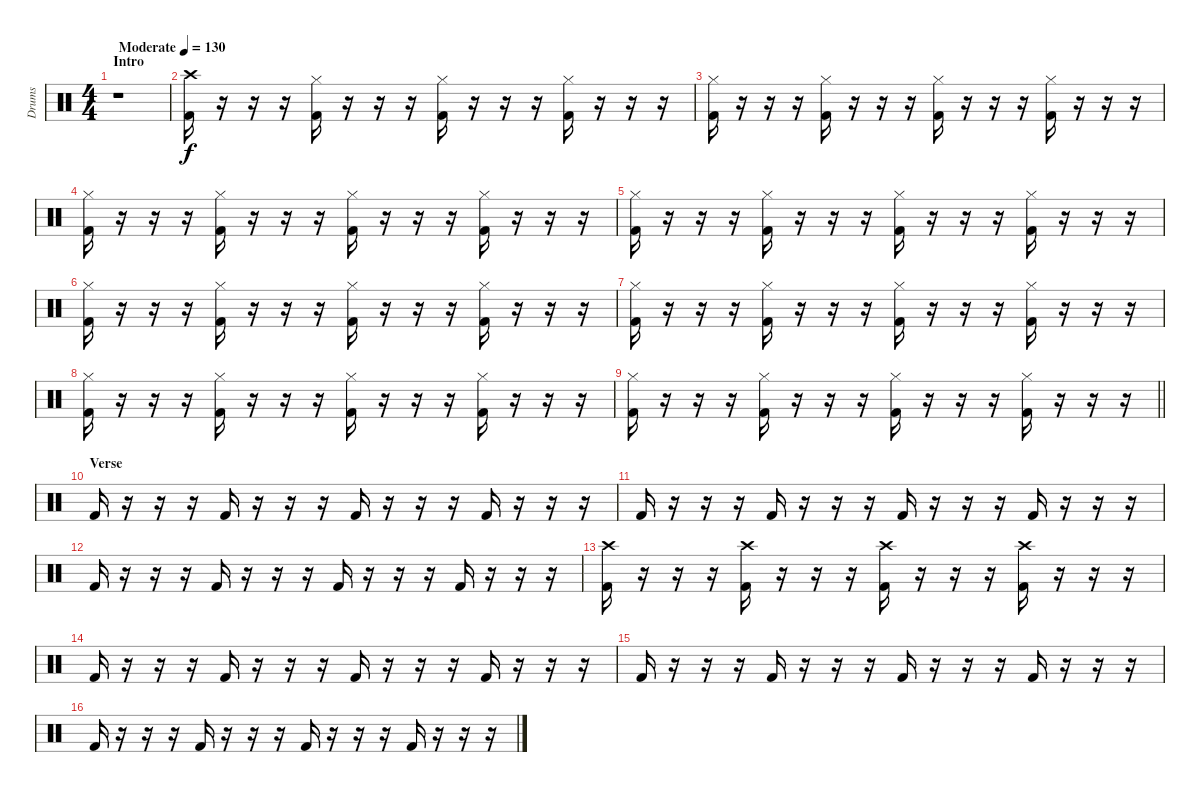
\track ("Drums" "Drums") {instrument percussion}
\staff {score}
\articulation defaults
\ts (4 4)
\section ("" "Intro")
\tempo (130 "Moderate")
\clef neutral
\ks c
r.1{dy f} |
("Crash high (hit)" "Kick (hit) 2").16 r.16 r.16 r.16 ("Hi-Hat (closed)" "Kick (hit) 2").16 r.16 r.16 r.16 ("Hi-Hat (closed)" "Kick (hit) 2").16 r.16 r.16 r.16 ("Hi-Hat (closed)" "Kick (hit) 2").16 r.16 r.16 r.16 |
("Hi-Hat (closed)" "Kick (hit) 2").16 r.16 r.16 r.16 ("Hi-Hat (closed)" "Kick (hit) 2").16 r.16 r.16 r.16 ("Hi-Hat (closed)" "Kick (hit) 2").16 r.16 r.16 r.16 ("Hi-Hat (closed)" "Kick (hit) 2").16 r.16 r.16 r.16 |
("Hi-Hat (closed)" "Kick (hit) 2").16 r.16 r.16 r.16 ("Hi-Hat (closed)" "Kick (hit) 2").16 r.16 r.16 r.16 ("Hi-Hat (closed)" "Kick (hit) 2").16 r.16 r.16 r.16 ("Hi-Hat (closed)" "Kick (hit) 2").16 r.16 r.16 r.16 |
("Hi-Hat (closed)" "Kick (hit) 2").16 r.16 r.16 r.16 ("Hi-Hat (closed)" "Kick (hit) 2").16 r.16 r.16 r.16 ("Hi-Hat (closed)" "Kick (hit) 2").16 r.16 r.16 r.16 ("Hi-Hat (closed)" "Kick (hit) 2").16 r.16 r.16 r.16 |
("Hi-Hat (closed)" "Kick (hit) 2").16 r.16 r.16 r.16 ("Hi-Hat (closed)" "Kick (hit) 2").16 r.16 r.16 r.16 ("Hi-Hat (closed)" "Kick (hit) 2").16 r.16 r.16 r.16 ("Hi-Hat (closed)" "Kick (hit) 2").16 r.16 r.16 r.16 |
("Hi-Hat (closed)" "Kick (hit) 2").16 r.16 r.16 r.16 ("Hi-Hat (closed)" "Kick (hit) 2").16 r.16 r.16 r.16 ("Hi-Hat (closed)" "Kick (hit) 2").16 r.16 r.16 r.16 ("Hi-Hat (closed)" "Kick (hit) 2").16 r.16 r.16 r.16 |
("Hi-Hat (closed)" "Kick (hit) 2").16 r.16 r.16 r.16 ("Hi-Hat (closed)" "Kick (hit) 2").16 r.16 r.16 r.16 ("Hi-Hat (closed)" "Kick (hit) 2").16 r.16 r.16 r.16 ("Hi-Hat (closed)" "Kick (hit) 2").16 r.16 r.16 r.16 |
\barLineRight lightlight
("Hi-Hat (closed)" "Kick (hit) 2").16 r.16 r.16 r.16 ("Hi-Hat (closed)" "Kick (hit) 2").16 r.16 r.16 r.16 ("Hi-Hat (closed)" "Kick (hit) 2").16 r.16 r.16 r.16 ("Hi-Hat (closed)" "Kick (hit) 2").16 r.16 r.16 r.16 |
\section ("" "Verse")
"Kick (hit) 2".16 r.16 r.16 r.16 "Kick (hit) 2".16 r.16 r.16 r.16 "Kick (hit) 2".16 r.16 r.16 r.16 "Kick (hit) 2".16 r.16 r.16 r.16 |
"Kick (hit) 2".16 r.16 r.16 r.16 "Kick (hit) 2".16 r.16 r.16 r.16 "Kick (hit) 2".16 r.16 r.16 r.16 "Kick (hit) 2".16 r.16 r.16 r.16 |
"Kick (hit) 2".16 r.16 r.16 r.16 "Kick (hit) 2".16 r.16 r.16 r.16 "Kick (hit) 2".16 r.16 r.16 r.16 "Kick (hit) 2".16 r.16 r.16 r.16 |
("Crash high (hit)" "Kick (hit) 2").16 r.16 r.16 r.16 ("Crash high (hit)" "Kick (hit) 2").16 r.16 r.16 r.16 ("Crash high (hit)" "Kick (hit) 2").16 r.16 r.16 r.16 ("Crash high (hit)" "Kick (hit) 2").16 r.16 r.16 r.16 |
"Kick (hit) 2".16 r.16 r.16 r.16 "Kick (hit) 2".16 r.16 r.16 r.16 "Kick (hit) 2".16 r.16 r.16 r.16 "Kick (hit) 2".16 r.16 r.16 r.16 |
"Kick (hit) 2".16 r.16 r.16 r.16 "Kick (hit) 2".16 r.16 r.16 r.16 "Kick (hit) 2".16 r.16 r.16 r.16 "Kick (hit) 2".16 r.16 r.16 r.16 |
"Kick (hit) 2".16 r.16 r.16 r.16 "Kick (hit) 2".16 r.16 r.16 r.16 "Kick (hit) 2".16 r.16 r.16 r.16 "Kick (hit) 2".16 r.16 r.16 r.16
